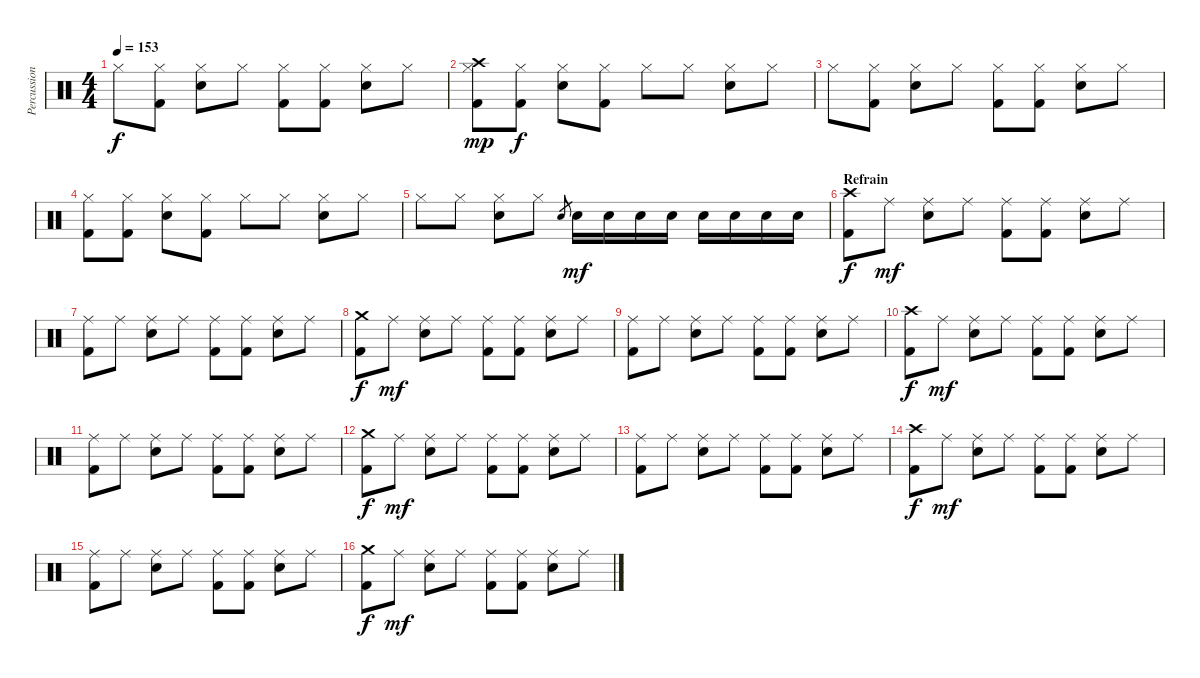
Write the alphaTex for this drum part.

\track ("Percussion" "Percussion") {instrument percussion}
\staff {score}
\articulation defaults
\ts (4 4)
\tempo 153
\clef neutral
\ks c "Hi-Hat (closed)".8{dy f}
("Hi-Hat (closed)" "Kick (hit) 2").8 ("Hi-Hat (closed)" "Electric Snare (hit)").8 "Hi-Hat (closed)".8 ("Hi-Hat (closed)" "Kick (hit) 2").8 ("Hi-Hat (closed)" "Kick (hit) 2").8 ("Hi-Hat (closed)" "Electric Snare (hit)").8 "Hi-Hat (closed)".8 |
("Crash high (hit)" "Hi-Hat (closed)" "Kick (hit) 2").8{dy mp} ("Hi-Hat (closed)" "Kick (hit) 2").8{dy f} ("Hi-Hat (closed)" "Electric Snare (hit)").8 ("Hi-Hat (closed)" "Kick (hit) 2").8 "Hi-Hat (closed)".8 "Hi-Hat (closed)".8 ("Hi-Hat (closed)" "Electric Snare (hit)").8 "Hi-Hat (closed)".8 |
"Hi-Hat (closed)".8 ("Hi-Hat (closed)" "Kick (hit) 2").8 ("Hi-Hat (closed)" "Electric Snare (hit)").8 "Hi-Hat (closed)".8 ("Hi-Hat (closed)" "Kick (hit) 2").8 ("Hi-Hat (closed)" "Kick (hit) 2").8 ("Hi-Hat (closed)" "Electric Snare (hit)").8 "Hi-Hat (closed)".8 |
("Hi-Hat (closed)" "Kick (hit) 2").8 ("Hi-Hat (closed)" "Kick (hit) 2").8 ("Hi-Hat (closed)" "Electric Snare (hit)").8 ("Hi-Hat (closed)" "Kick (hit) 2").8 "Hi-Hat (closed)".8 "Hi-Hat (closed)".8 ("Hi-Hat (closed)" "Electric Snare (hit)").8 "Hi-Hat (closed)".8 |
"Hi-Hat (closed)".8 "Hi-Hat (closed)".8 ("Hi-Hat (closed)" "Electric Snare (hit)").8 "Hi-Hat (closed)".8 "Electric Snare (hit)".8{gr} "Electric Snare (hit)".16{dy mf} "Electric Snare (hit)".16 "Electric Snare (hit)".16 "Electric Snare (hit)".16 "Snare (hit) 2".16 "Snare (hit) 2".16 "Snare (hit) 2".16 "Snare (hit) 2".16 |
\section ("" "Refrain")
("Crash high (hit)" "Kick (hit) 2").8{dy f} "Ride (middle)".8{dy mf} ("Ride (middle)" "Electric Snare (hit)").8 "Ride (middle)".8 ("Ride (middle)" "Kick (hit) 2").8 ("Ride (middle)" "Kick (hit) 2").8 ("Ride (middle)" "Electric Snare (hit)").8 "Ride (middle)".8 |
("Ride (middle)" "Kick (hit) 2").8 "Ride (middle)".8 ("Ride (middle)" "Electric Snare (hit)").8 "Ride (middle)".8 ("Ride (middle)" "Kick (hit) 2").8 ("Ride (middle)" "Kick (hit) 2").8 ("Ride (middle)" "Electric Snare (hit)").8 "Ride (middle)".8 |
("Crash medium (hit)" "Kick (hit) 2").8{dy f} "Ride (middle)".8{dy mf} ("Ride (middle)" "Electric Snare (hit)").8 "Ride (middle)".8 ("Ride (middle)" "Kick (hit) 2").8 ("Ride (middle)" "Kick (hit) 2").8 ("Ride (middle)" "Electric Snare (hit)").8 "Ride (middle)".8 |
("Ride (middle)" "Kick (hit) 2").8 "Ride (middle)".8 ("Ride (middle)" "Electric Snare (hit)").8 "Ride (middle)".8 ("Ride (middle)" "Kick (hit) 2").8 ("Ride (middle)" "Kick (hit) 2").8 ("Ride (middle)" "Electric Snare (hit)").8 "Ride (middle)".8 |
("Crash high (hit)" "Kick (hit) 2").8{dy f} "Ride (middle)".8{dy mf} ("Ride (middle)" "Electric Snare (hit)").8 "Ride (middle)".8 ("Ride (middle)" "Kick (hit) 2").8 ("Ride (middle)" "Kick (hit) 2").8 ("Ride (middle)" "Electric Snare (hit)").8 "Ride (middle)".8 |
("Ride (middle)" "Kick (hit) 2").8 "Ride (middle)".8 ("Ride (middle)" "Electric Snare (hit)").8 "Ride (middle)".8 ("Ride (middle)" "Kick (hit) 2").8 ("Ride (middle)" "Kick (hit) 2").8 ("Ride (middle)" "Electric Snare (hit)").8 "Ride (middle)".8 |
("Crash medium (hit)" "Kick (hit) 2").8{dy f} "Ride (middle)".8{dy mf} ("Ride (middle)" "Electric Snare (hit)").8 "Ride (middle)".8 ("Ride (middle)" "Kick (hit) 2").8 ("Ride (middle)" "Kick (hit) 2").8 ("Ride (middle)" "Electric Snare (hit)").8 "Ride (middle)".8 |
("Ride (middle)" "Kick (hit) 2").8 "Ride (middle)".8 ("Ride (middle)" "Electric Snare (hit)").8 "Ride (middle)".8 ("Ride (middle)" "Kick (hit) 2").8 ("Ride (middle)" "Kick (hit) 2").8 ("Ride (middle)" "Electric Snare (hit)").8 "Ride (middle)".8 |
("Crash high (hit)" "Kick (hit) 2").8{dy f} "Ride (middle)".8{dy mf} ("Ride (middle)" "Electric Snare (hit)").8 "Ride (middle)".8 ("Ride (middle)" "Kick (hit) 2").8 ("Ride (middle)" "Kick (hit) 2").8 ("Ride (middle)" "Electric Snare (hit)").8 "Ride (middle)".8 |
("Ride (middle)" "Kick (hit) 2").8 "Ride (middle)".8 ("Ride (middle)" "Electric Snare (hit)").8 "Ride (middle)".8 ("Ride (middle)" "Kick (hit) 2").8 ("Ride (middle)" "Kick (hit) 2").8 ("Ride (middle)" "Electric Snare (hit)").8 "Ride (middle)".8 |
("Crash medium (hit)" "Kick (hit) 2").8{dy f} "Ride (middle)".8{dy mf} ("Ride (middle)" "Electric Snare (hit)").8 "Ride (middle)".8 ("Ride (middle)" "Kick (hit) 2").8 ("Ride (middle)" "Kick (hit) 2").8 ("Ride (middle)" "Electric Snare (hit)").8 "Ride (middle)".8
